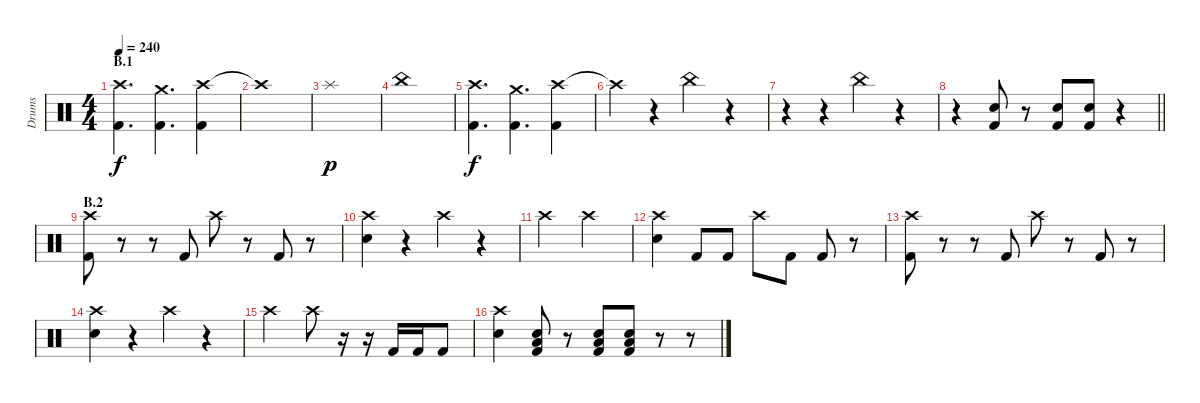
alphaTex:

\track ("Drums" "Drums") {instrument percussion}
\staff {score}
\articulation defaults
\ts (4 4)
\section ("" "B.1")
\tempo 240
\clef neutral
\ks c
("Crash high (hit)" "Kick (hit) 2").4{d dy f} ("Crash medium (hit)" "Kick (hit) 2").4{d} ("Crash high (hit)" "Kick (hit) 2").4 |
"Crash high (hit)"{t}.1 |
"Splash (hit)".1{dy p} |
"China (hit)".1 |
("Crash high (hit)" "Kick (hit) 2").4{d dy f} ("Crash medium (hit)" "Kick (hit) 2").4{d} ("Crash high (hit)" "Kick (hit) 2").4 |
"Crash high (hit)"{t}.4 r.4 "China (hit)".4 r.4 |
r.4 r.4 "China (hit)".4 r.4 |
\barLineRight lightlight
r.4 ("Electric Snare (hit)" "Kick (hit) 2").8 r.8 ("Electric Snare (hit)" "Kick (hit) 2").8 ("Electric Snare (hit)" "Kick (hit) 2").8 r.4 |
\section ("" "B.2")
("Crash high (hit)" "Kick (hit) 2").8 r.8 r.8 "Kick (hit) 2".8 "Crash high (hit)".8 r.8 "Kick (hit) 2".8 r.8 |
("Crash high (hit)" "Electric Snare (hit)").4 r.4 "Crash high (hit)".4 r.4 |
"Crash high (hit)".2 "Crash high (hit)".2 |
("Crash high (hit)" "Electric Snare (hit)").4 "Kick (hit) 2".8 "Kick (hit) 2".8 "Crash high (hit)".8 "Kick (hit) 2".8 "Kick (hit) 2".8 r.8 |
("Crash high (hit)" "Kick (hit) 2").8 r.8 r.8 "Kick (hit) 2".8 "Crash high (hit)".8 r.8 "Kick (hit) 2".8 r.8 |
("Crash high (hit)" "Electric Snare (hit)").4 r.4 "Crash high (hit)".4 r.4 |
"Crash high (hit)".2 "Crash high (hit)".8 r.16 r.16 "Kick (hit) 2".16 "Kick (hit) 2".16 "Kick (hit) 2".8 |
("Crash high (hit)" "Electric Snare (hit)").4 ("Electric Snare (hit)" "Low Floor Tom (hit)" "Kick (hit) 2").8 r.8 ("Electric Snare (hit)" "Low Floor Tom (hit)" "Kick (hit) 2").8 ("Electric Snare (hit)" "Low Floor Tom (hit)" "Kick (hit) 2").8 r.8 r.8
